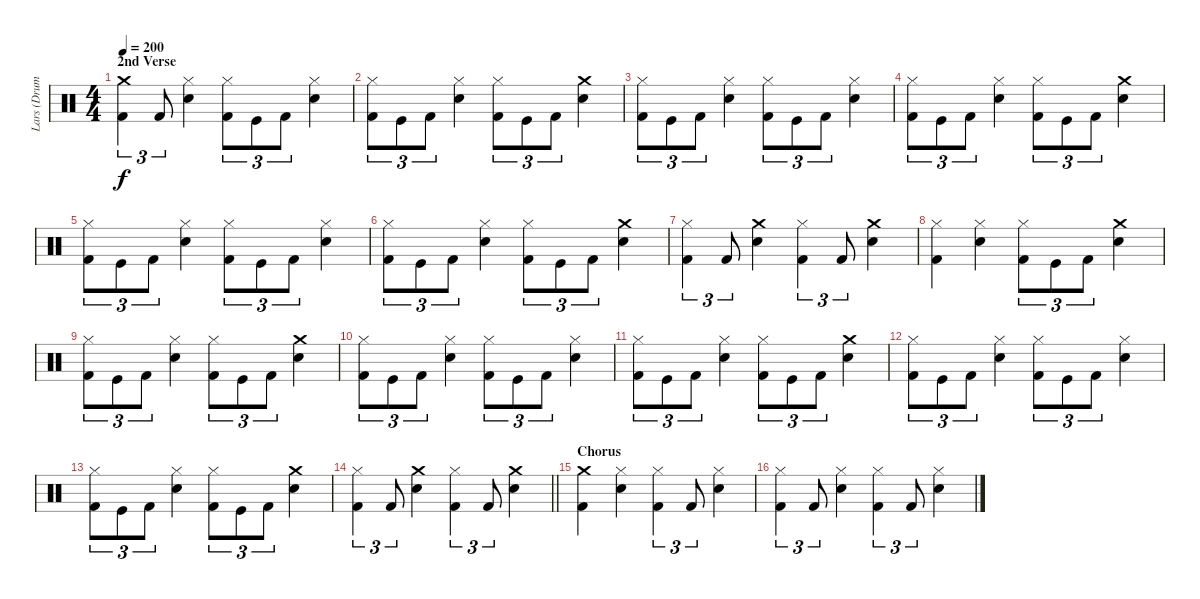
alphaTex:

\track ("Lars (Drums)" "Lars (Drum") {instrument percussion}
\staff {score}
\articulation defaults
\ts (4 4)
\section ("" "2nd Verse")
\tempo 200
\clef neutral
\ks c
("Crash medium (hit)" "Kick (hit) 2").4{tu (3 2) dy f} "Kick (hit) 2".8{tu (3 2)} ("Snare (hit) 2" "Hi-Hat (closed)").4 ("Hi-Hat (closed)" "Kick (hit) 2").8{tu (3 2)} "Kick (hit)".8{tu (3 2)} "Kick (hit) 2".8{tu (3 2)} ("Hi-Hat (closed)" "Snare (hit) 2").4 |
("Hi-Hat (closed)" "Kick (hit) 2").8{tu (3 2)} "Kick (hit)".8{tu (3 2)} "Kick (hit) 2".8{tu (3 2)} ("Snare (hit) 2" "Hi-Hat (closed)").4 ("Hi-Hat (closed)" "Kick (hit) 2").8{tu (3 2)} "Kick (hit)".8{tu (3 2)} "Kick (hit) 2".8{tu (3 2)} ("Crash medium (hit)" "Snare (hit) 2").4 |
("Hi-Hat (closed)" "Kick (hit) 2").8{tu (3 2)} "Kick (hit)".8{tu (3 2)} "Kick (hit) 2".8{tu (3 2)} ("Snare (hit) 2" "Hi-Hat (closed)").4 ("Hi-Hat (closed)" "Kick (hit) 2").8{tu (3 2)} "Kick (hit)".8{tu (3 2)} "Kick (hit) 2".8{tu (3 2)} ("Hi-Hat (closed)" "Snare (hit) 2").4 |
("Hi-Hat (closed)" "Kick (hit) 2").8{tu (3 2)} "Kick (hit)".8{tu (3 2)} "Kick (hit) 2".8{tu (3 2)} ("Snare (hit) 2" "Hi-Hat (closed)").4 ("Hi-Hat (closed)" "Kick (hit) 2").8{tu (3 2)} "Kick (hit)".8{tu (3 2)} "Kick (hit) 2".8{tu (3 2)} ("Crash medium (hit)" "Snare (hit) 2").4 |
("Hi-Hat (closed)" "Kick (hit) 2").8{tu (3 2)} "Kick (hit)".8{tu (3 2)} "Kick (hit) 2".8{tu (3 2)} ("Snare (hit) 2" "Hi-Hat (closed)").4 ("Hi-Hat (closed)" "Kick (hit) 2").8{tu (3 2)} "Kick (hit)".8{tu (3 2)} "Kick (hit) 2".8{tu (3 2)} ("Hi-Hat (closed)" "Snare (hit) 2").4 |
("Hi-Hat (closed)" "Kick (hit) 2").8{tu (3 2)} "Kick (hit)".8{tu (3 2)} "Kick (hit) 2".8{tu (3 2)} ("Snare (hit) 2" "Hi-Hat (closed)").4 ("Hi-Hat (closed)" "Kick (hit) 2").8{tu (3 2)} "Kick (hit)".8{tu (3 2)} "Kick (hit) 2".8{tu (3 2)} ("Crash medium (hit)" "Snare (hit) 2").4 |
("Kick (hit) 2" "Hi-Hat (closed)").4{tu (3 2)} "Kick (hit) 2".8{tu (3 2)} ("Crash medium (hit)" "Snare (hit) 2").4 ("Kick (hit) 2" "Hi-Hat (closed)").4{tu (3 2)} "Kick (hit) 2".8{tu (3 2)} ("Crash medium (hit)" "Snare (hit) 2").4 |
("Hi-Hat (closed)" "Kick (hit) 2").4 ("Snare (hit) 2" "Hi-Hat (closed)").4 ("Hi-Hat (closed)" "Kick (hit) 2").8{tu (3 2)} "Kick (hit)".8{tu (3 2)} "Kick (hit) 2".8{tu (3 2)} ("Crash medium (hit)" "Snare (hit) 2").4 |
("Hi-Hat (closed)" "Kick (hit) 2").8{tu (3 2)} "Kick (hit)".8{tu (3 2)} "Kick (hit) 2".8{tu (3 2)} ("Snare (hit) 2" "Hi-Hat (closed)").4 ("Hi-Hat (closed)" "Kick (hit) 2").8{tu (3 2)} "Kick (hit)".8{tu (3 2)} "Kick (hit) 2".8{tu (3 2)} ("Crash medium (hit)" "Snare (hit) 2").4 |
("Hi-Hat (closed)" "Kick (hit) 2").8{tu (3 2)} "Kick (hit)".8{tu (3 2)} "Kick (hit) 2".8{tu (3 2)} ("Snare (hit) 2" "Hi-Hat (closed)").4 ("Hi-Hat (closed)" "Kick (hit) 2").8{tu (3 2)} "Kick (hit)".8{tu (3 2)} "Kick (hit) 2".8{tu (3 2)} ("Hi-Hat (closed)" "Snare (hit) 2").4 |
("Hi-Hat (closed)" "Kick (hit) 2").8{tu (3 2)} "Kick (hit)".8{tu (3 2)} "Kick (hit) 2".8{tu (3 2)} ("Snare (hit) 2" "Hi-Hat (closed)").4 ("Hi-Hat (closed)" "Kick (hit) 2").8{tu (3 2)} "Kick (hit)".8{tu (3 2)} "Kick (hit) 2".8{tu (3 2)} ("Crash medium (hit)" "Snare (hit) 2").4 |
("Hi-Hat (closed)" "Kick (hit) 2").8{tu (3 2)} "Kick (hit)".8{tu (3 2)} "Kick (hit) 2".8{tu (3 2)} ("Snare (hit) 2" "Hi-Hat (closed)").4 ("Hi-Hat (closed)" "Kick (hit) 2").8{tu (3 2)} "Kick (hit)".8{tu (3 2)} "Kick (hit) 2".8{tu (3 2)} ("Hi-Hat (closed)" "Snare (hit) 2").4 |
("Hi-Hat (closed)" "Kick (hit) 2").8{tu (3 2)} "Kick (hit)".8{tu (3 2)} "Kick (hit) 2".8{tu (3 2)} ("Snare (hit) 2" "Hi-Hat (closed)").4 ("Hi-Hat (closed)" "Kick (hit) 2").8{tu (3 2)} "Kick (hit)".8{tu (3 2)} "Kick (hit) 2".8{tu (3 2)} ("Crash medium (hit)" "Snare (hit) 2").4 |
\barLineRight lightlight
("Hi-Hat (closed)" "Kick (hit) 2").4{tu (3 2)} "Kick (hit) 2".8{tu (3 2)} ("Crash medium (hit)" "Snare (hit) 2").4 ("Hi-Hat (closed)" "Kick (hit) 2").4{tu (3 2)} "Kick (hit) 2".8{tu (3 2)} ("Crash medium (hit)" "Snare (hit) 2").4 |
\section ("" "Chorus")
("Kick (hit) 2" "Crash medium (hit)").4 ("Hi-Hat (closed)" "Snare (hit) 2").4 ("Hi-Hat (closed)" "Kick (hit) 2").4{tu (3 2)} "Kick (hit) 2".8{tu (3 2)} ("Snare (hit) 2" "Hi-Hat (closed)").4 |
("Kick (hit) 2" "Hi-Hat (closed)").4{tu (3 2)} "Kick (hit) 2".8{tu (3 2)} ("Snare (hit) 2" "Hi-Hat (closed)").4 ("Kick (hit) 2" "Hi-Hat (closed)").4{tu (3 2)} "Kick (hit) 2".8{tu (3 2)} ("Snare (hit) 2" "Hi-Hat (closed)").4
